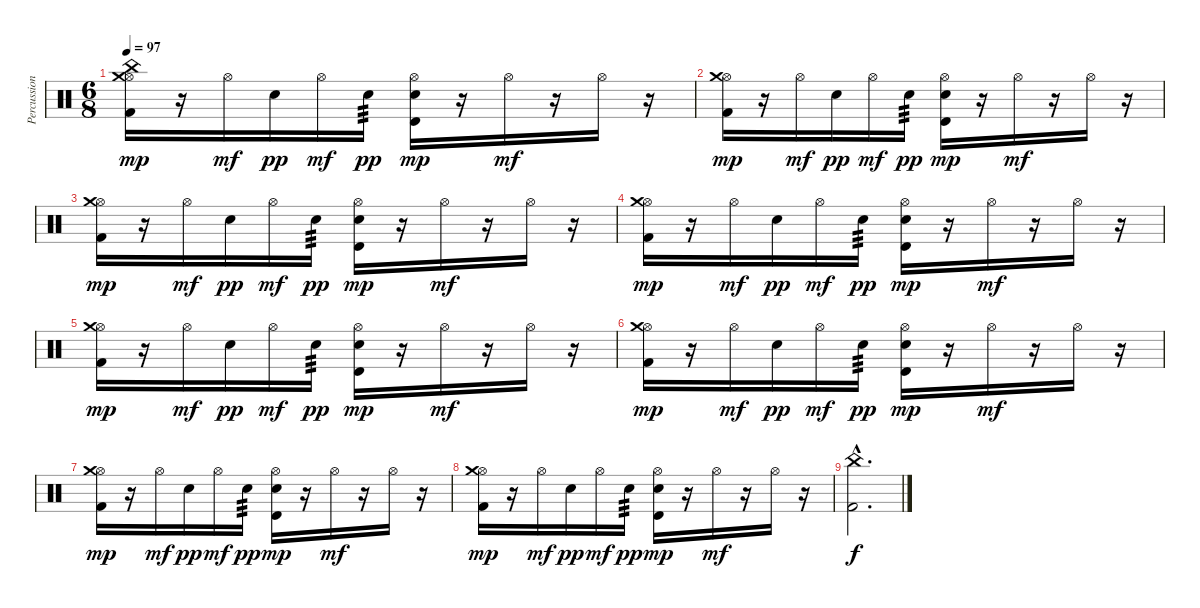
\track ("Percussion" "Percussion") {instrument percussion}
\staff {score}
\articulation defaults
\ts (6 8)
\tempo 97
\clef neutral
\ks c
("Hi-Hat (open)" "Crash medium (hit)" "China (hit)" "Kick (hit) 2").16{dy mp} r.16 "Hi-Hat (open)".16{dy mf} "Electric Snare (hit)".16{dy pp} "Hi-Hat (open)".16{dy mf} "Electric Snare (hit)".16{tp 3 dy pp} ("Hi-Hat (open)" "Timbale high (hit)" "Electric Snare (hit)").16{dy mp} r.16 "Hi-Hat (open)".16{dy mf} r.16 "Hi-Hat (open)".16 r.16 |
("Hi-Hat (open)" "Crash medium (hit)" "Kick (hit) 2").16{dy mp} r.16 "Hi-Hat (open)".16{dy mf} "Electric Snare (hit)".16{dy pp} "Hi-Hat (open)".16{dy mf} "Electric Snare (hit)".16{tp 3 dy pp} ("Hi-Hat (open)" "Timbale high (hit)" "Electric Snare (hit)").16{dy mp} r.16 "Hi-Hat (open)".16{dy mf} r.16 "Hi-Hat (open)".16 r.16 |
("Hi-Hat (open)" "Crash medium (hit)" "Kick (hit) 2").16{dy mp} r.16 "Hi-Hat (open)".16{dy mf} "Electric Snare (hit)".16{dy pp} "Hi-Hat (open)".16{dy mf} "Electric Snare (hit)".16{tp 3 dy pp} ("Hi-Hat (open)" "Timbale high (hit)" "Electric Snare (hit)").16{dy mp} r.16 "Hi-Hat (open)".16{dy mf} r.16 "Hi-Hat (open)".16 r.16 |
("Hi-Hat (open)" "Crash medium (hit)" "Kick (hit) 2").16{dy mp} r.16 "Hi-Hat (open)".16{dy mf} "Electric Snare (hit)".16{dy pp} "Hi-Hat (open)".16{dy mf} "Electric Snare (hit)".16{tp 3 dy pp} ("Hi-Hat (open)" "Timbale high (hit)" "Electric Snare (hit)").16{dy mp} r.16 "Hi-Hat (open)".16{dy mf} r.16 "Hi-Hat (open)".16 r.16 |
("Hi-Hat (open)" "Crash medium (hit)" "Kick (hit) 2").16{dy mp} r.16 "Hi-Hat (open)".16{dy mf} "Electric Snare (hit)".16{dy pp} "Hi-Hat (open)".16{dy mf} "Electric Snare (hit)".16{tp 3 dy pp} ("Hi-Hat (open)" "Timbale high (hit)" "Electric Snare (hit)").16{dy mp} r.16 "Hi-Hat (open)".16{dy mf} r.16 "Hi-Hat (open)".16 r.16 |
("Hi-Hat (open)" "Crash medium (hit)" "Kick (hit) 2").16{dy mp} r.16 "Hi-Hat (open)".16{dy mf} "Electric Snare (hit)".16{dy pp} "Hi-Hat (open)".16{dy mf} "Electric Snare (hit)".16{tp 3 dy pp} ("Hi-Hat (open)" "Timbale high (hit)" "Electric Snare (hit)").16{dy mp} r.16 "Hi-Hat (open)".16{dy mf} r.16 "Hi-Hat (open)".16 r.16 |
("Hi-Hat (open)" "Crash medium (hit)" "Kick (hit) 2").16{dy mp} r.16 "Hi-Hat (open)".16{dy mf} "Electric Snare (hit)".16{dy pp} "Hi-Hat (open)".16{dy mf} "Electric Snare (hit)".16{tp 3 dy pp} ("Hi-Hat (open)" "Timbale high (hit)" "Electric Snare (hit)").16{dy mp} r.16 "Hi-Hat (open)".16{dy mf} r.16 "Hi-Hat (open)".16 r.16 |
("Hi-Hat (open)" "Crash medium (hit)" "Kick (hit) 2").16{dy mp} r.16 "Hi-Hat (open)".16{dy mf} "Electric Snare (hit)".16{dy pp} "Hi-Hat (open)".16{dy mf} "Electric Snare (hit)".16{tp 3 dy pp} ("Hi-Hat (open)" "Timbale high (hit)" "Electric Snare (hit)").16{dy mp} r.16 "Hi-Hat (open)".16{dy mf} r.16 "Hi-Hat (open)".16 r.16 |
("China (hit)"{hac} "Kick (hit) 2"{hac}).2{d dy f}
